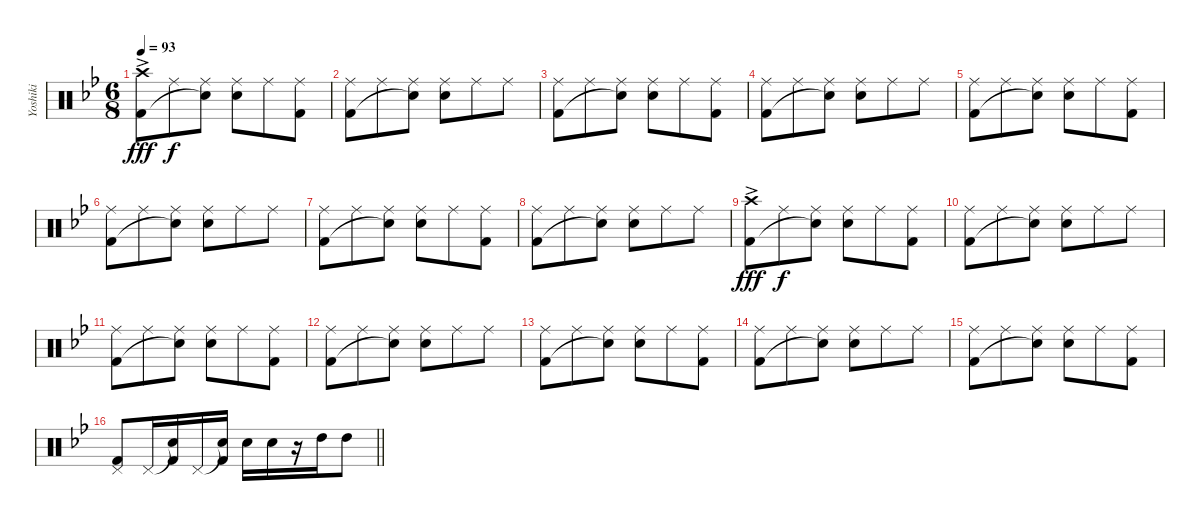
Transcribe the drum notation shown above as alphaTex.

\track ("Yoshiki" "Yoshiki") {instrument percussion}
\staff {score}
\articulation defaults
\ts (6 8)
\tempo 93
\clef neutral
\ks bb
("Crash high (hit)"{ac} "Kick (hit) 2"{ac}).8{dy fff} "Ride (middle)".8{dy f} ("Ride (middle)" "Snare (hit)"{t}).8 ("Ride (middle)" "Snare (hit) 2").8 "Ride (middle)".8 ("Ride (middle)" "Kick (hit) 2").8 |
("Ride (middle)" "Kick (hit) 2").8 "Ride (middle)".8 ("Ride (middle)" "Snare (hit)"{t}).8 ("Ride (middle)" "Snare (hit) 2").8 "Ride (middle)".8 "Ride (middle)".8 |
("Ride (middle)" "Kick (hit) 2").8 "Ride (middle)".8 ("Ride (middle)" "Snare (hit)"{t}).8 ("Ride (middle)" "Snare (hit) 2").8 "Ride (middle)".8 ("Ride (middle)" "Kick (hit) 2").8 |
("Ride (middle)" "Kick (hit) 2").8 "Ride (middle)".8 ("Ride (middle)" "Snare (hit)"{t}).8 ("Ride (middle)" "Snare (hit) 2").8 "Ride (middle)".8 "Ride (middle)".8 |
("Ride (middle)" "Kick (hit) 2").8 "Ride (middle)".8 ("Ride (middle)" "Snare (hit)"{t}).8 ("Ride (middle)" "Snare (hit) 2").8 "Ride (middle)".8 ("Ride (middle)" "Kick (hit) 2").8 |
("Ride (middle)" "Kick (hit) 2").8 "Ride (middle)".8 ("Ride (middle)" "Snare (hit)"{t}).8 ("Ride (middle)" "Snare (hit) 2").8 "Ride (middle)".8 "Ride (middle)".8 |
("Ride (middle)" "Kick (hit) 2").8 "Ride (middle)".8 ("Ride (middle)" "Snare (hit)"{t}).8 ("Ride (middle)" "Snare (hit) 2").8 "Ride (middle)".8 ("Ride (middle)" "Kick (hit) 2").8 |
("Ride (middle)" "Kick (hit) 2").8 "Ride (middle)".8 ("Ride (middle)" "Snare (hit)"{t}).8 ("Ride (middle)" "Snare (hit) 2").8 "Ride (middle)".8 "Ride (middle)".8 |
("Crash high (hit)"{ac} "Kick (hit) 2"{ac}).8{dy fff} "Ride (middle)".8{dy f} ("Ride (middle)" "Snare (hit)"{t}).8 ("Ride (middle)" "Snare (hit) 2").8 "Ride (middle)".8 ("Ride (middle)" "Kick (hit) 2").8 |
("Ride (middle)" "Kick (hit) 2").8 "Ride (middle)".8 ("Ride (middle)" "Snare (hit)"{t}).8 ("Ride (middle)" "Snare (hit) 2").8 "Ride (middle)".8 "Ride (middle)".8 |
("Ride (middle)" "Kick (hit) 2").8 "Ride (middle)".8 ("Ride (middle)" "Snare (hit)"{t}).8 ("Ride (middle)" "Snare (hit) 2").8 "Ride (middle)".8 ("Ride (middle)" "Kick (hit) 2").8 |
("Ride (middle)" "Kick (hit) 2").8 "Ride (middle)".8 ("Ride (middle)" "Snare (hit)"{t}).8 ("Ride (middle)" "Snare (hit) 2").8 "Ride (middle)".8 "Ride (middle)".8 |
("Ride (middle)" "Kick (hit) 2").8 "Ride (middle)".8 ("Ride (middle)" "Snare (hit)"{t}).8 ("Ride (middle)" "Snare (hit) 2").8 "Ride (middle)".8 ("Ride (middle)" "Kick (hit) 2").8 |
("Ride (middle)" "Kick (hit) 2").8 "Ride (middle)".8 ("Ride (middle)" "Snare (hit)"{t}).8 ("Ride (middle)" "Snare (hit) 2").8 "Ride (middle)".8 "Ride (middle)".8 |
("Ride (middle)" "Kick (hit) 2").8 "Ride (middle)".8 ("Ride (middle)" "Snare (hit)"{t}).8 ("Ride (middle)" "Snare (hit) 2").8 "Ride (middle)".8 ("Ride (middle)" "Kick (hit) 2").8 |
\barLineRight lightlight
("Pedal Hi-Hat (hit)" "Kick (hit) 2").8 "Pedal Hi-Hat (hit)".16 ("Snare (hit)"{t} "Kick (hit) 2").16 "Pedal Hi-Hat (hit)".16 ("Snare (hit)"{t} "Kick (hit) 2").16 "Snare (hit) 2".16 "Snare (hit) 2".16 r.16 "High Tom (hit)".16 "High Tom (hit)".8
